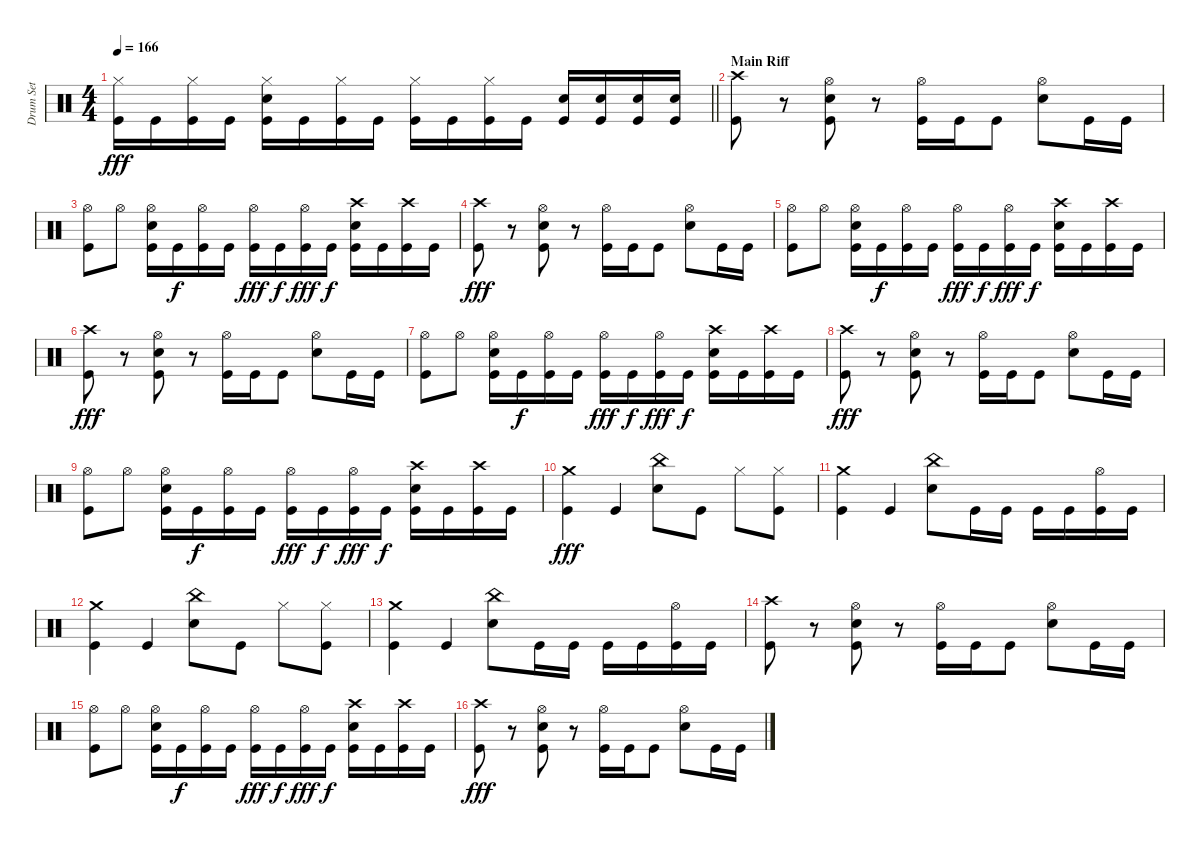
\track ("Drum Set" "Drum Set") {instrument percussion}
\staff {score}
\articulation defaults
\ts (4 4)
\tempo 166
\clef neutral
\barLineRight lightlight
\ks c
("Kick (hit)" "Hi-Hat (closed)").16{dy fff} "Kick (hit)".16 ("Kick (hit)" "Hi-Hat (closed)").16 "Kick (hit)".16 ("Electric Snare (hit)" "Kick (hit)" "Hi-Hat (closed)").16 "Kick (hit)".16 ("Kick (hit)" "Hi-Hat (closed)").16 "Kick (hit)".16 ("Kick (hit)" "Hi-Hat (closed)").16 "Kick (hit)".16 ("Kick (hit)" "Hi-Hat (closed)").16 "Kick (hit)".16 ("Electric Snare (hit)" "Kick (hit)").16 ("Electric Snare (hit)" "Kick (hit)").16 ("Electric Snare (hit)" "Kick (hit)").16 ("Electric Snare (hit)" "Kick (hit)").16 |
\section ("" "Main Riff")
("Kick (hit)" "Crash high (hit)").8 r.8 ("Electric Snare (hit)" "Kick (hit)" "Hi-Hat (open)").8 r.8 ("Kick (hit)" "Hi-Hat (open)").16 "Kick (hit)".16 "Kick (hit)".8 ("Electric Snare (hit)" "Hi-Hat (open)").8 "Kick (hit)".16 "Kick (hit)".16 |
("Kick (hit)" "Hi-Hat (open)").8 "Hi-Hat (open)".8 ("Electric Snare (hit)" "Kick (hit)" "Hi-Hat (open)").16 "Kick (hit)".16{dy f} ("Kick (hit)" "Hi-Hat (open)").16 "Kick (hit)".16 ("Kick (hit)" "Hi-Hat (open)").16{dy fff} "Kick (hit)".16{dy f} ("Kick (hit)" "Hi-Hat (open)").16{dy fff} "Kick (hit)".16{dy f} ("Electric Snare (hit)" "Kick (hit)" "Crash high (hit)").16 "Kick (hit)".16 ("Kick (hit)" "Crash high (hit)").16 "Kick (hit)".16 |
("Kick (hit)" "Crash high (hit)").8{dy fff} r.8 ("Electric Snare (hit)" "Kick (hit)" "Hi-Hat (open)").8 r.8 ("Kick (hit)" "Hi-Hat (open)").16 "Kick (hit)".16 "Kick (hit)".8 ("Electric Snare (hit)" "Hi-Hat (open)").8 "Kick (hit)".16 "Kick (hit)".16 |
("Kick (hit)" "Hi-Hat (open)").8 "Hi-Hat (open)".8 ("Electric Snare (hit)" "Kick (hit)" "Hi-Hat (open)").16 "Kick (hit)".16{dy f} ("Kick (hit)" "Hi-Hat (open)").16 "Kick (hit)".16 ("Kick (hit)" "Hi-Hat (open)").16{dy fff} "Kick (hit)".16{dy f} ("Kick (hit)" "Hi-Hat (open)").16{dy fff} "Kick (hit)".16{dy f} ("Electric Snare (hit)" "Kick (hit)" "Crash high (hit)").16 "Kick (hit)".16 ("Kick (hit)" "Crash high (hit)").16 "Kick (hit)".16 |
("Kick (hit)" "Crash high (hit)").8{dy fff} r.8 ("Electric Snare (hit)" "Kick (hit)" "Hi-Hat (open)").8 r.8 ("Kick (hit)" "Hi-Hat (open)").16 "Kick (hit)".16 "Kick (hit)".8 ("Electric Snare (hit)" "Hi-Hat (open)").8 "Kick (hit)".16 "Kick (hit)".16 |
("Kick (hit)" "Hi-Hat (open)").8 "Hi-Hat (open)".8 ("Electric Snare (hit)" "Kick (hit)" "Hi-Hat (open)").16 "Kick (hit)".16{dy f} ("Kick (hit)" "Hi-Hat (open)").16 "Kick (hit)".16 ("Kick (hit)" "Hi-Hat (open)").16{dy fff} "Kick (hit)".16{dy f} ("Kick (hit)" "Hi-Hat (open)").16{dy fff} "Kick (hit)".16{dy f} ("Electric Snare (hit)" "Kick (hit)" "Crash high (hit)").16 "Kick (hit)".16 ("Kick (hit)" "Crash high (hit)").16 "Kick (hit)".16 |
("Kick (hit)" "Crash high (hit)").8{dy fff} r.8 ("Electric Snare (hit)" "Kick (hit)" "Hi-Hat (open)").8 r.8 ("Kick (hit)" "Hi-Hat (open)").16 "Kick (hit)".16 "Kick (hit)".8 ("Electric Snare (hit)" "Hi-Hat (open)").8 "Kick (hit)".16 "Kick (hit)".16 |
("Kick (hit)" "Hi-Hat (open)").8 "Hi-Hat (open)".8 ("Electric Snare (hit)" "Kick (hit)" "Hi-Hat (open)").16 "Kick (hit)".16{dy f} ("Kick (hit)" "Hi-Hat (open)").16 "Kick (hit)".16 ("Kick (hit)" "Hi-Hat (open)").16{dy fff} "Kick (hit)".16{dy f} ("Kick (hit)" "Hi-Hat (open)").16{dy fff} "Kick (hit)".16{dy f} ("Electric Snare (hit)" "Kick (hit)" "Crash high (hit)").16 "Kick (hit)".16 ("Kick (hit)" "Crash high (hit)").16 "Kick (hit)".16 |
("Kick (hit)" "Crash medium (hit)").4{dy fff} "Kick (hit)".4 ("Electric Snare (hit)" "China (hit)").8 "Kick (hit)".8 "Hi-Hat (closed)".8 ("Kick (hit)" "Hi-Hat (closed)").8 |
("Kick (hit)" "Crash medium (hit)").4 "Kick (hit)".4 ("Electric Snare (hit)" "China (hit)").8 "Kick (hit)".16 "Kick (hit)".16 "Kick (hit)".16 "Kick (hit)".16 ("Kick (hit)" "Hi-Hat (open)").16 "Kick (hit)".16 |
("Kick (hit)" "Crash medium (hit)").4 "Kick (hit)".4 ("Electric Snare (hit)" "China (hit)").8 "Kick (hit)".8 "Hi-Hat (closed)".8 ("Kick (hit)" "Hi-Hat (closed)").8 |
("Kick (hit)" "Crash medium (hit)").4 "Kick (hit)".4 ("Electric Snare (hit)" "China (hit)").8 "Kick (hit)".16 "Kick (hit)".16 "Kick (hit)".16 "Kick (hit)".16 ("Kick (hit)" "Hi-Hat (open)").16 "Kick (hit)".16 |
("Kick (hit)" "Crash high (hit)").8 r.8 ("Electric Snare (hit)" "Kick (hit)" "Hi-Hat (open)").8 r.8 ("Kick (hit)" "Hi-Hat (open)").16 "Kick (hit)".16 "Kick (hit)".8 ("Electric Snare (hit)" "Hi-Hat (open)").8 "Kick (hit)".16 "Kick (hit)".16 |
("Kick (hit)" "Hi-Hat (open)").8 "Hi-Hat (open)".8 ("Electric Snare (hit)" "Kick (hit)" "Hi-Hat (open)").16 "Kick (hit)".16{dy f} ("Kick (hit)" "Hi-Hat (open)").16 "Kick (hit)".16 ("Kick (hit)" "Hi-Hat (open)").16{dy fff} "Kick (hit)".16{dy f} ("Kick (hit)" "Hi-Hat (open)").16{dy fff} "Kick (hit)".16{dy f} ("Electric Snare (hit)" "Kick (hit)" "Crash high (hit)").16 "Kick (hit)".16 ("Kick (hit)" "Crash high (hit)").16 "Kick (hit)".16 |
("Kick (hit)" "Crash high (hit)").8{dy fff} r.8 ("Electric Snare (hit)" "Kick (hit)" "Hi-Hat (open)").8 r.8 ("Kick (hit)" "Hi-Hat (open)").16 "Kick (hit)".16 "Kick (hit)".8 ("Electric Snare (hit)" "Hi-Hat (open)").8 "Kick (hit)".16 "Kick (hit)".16
